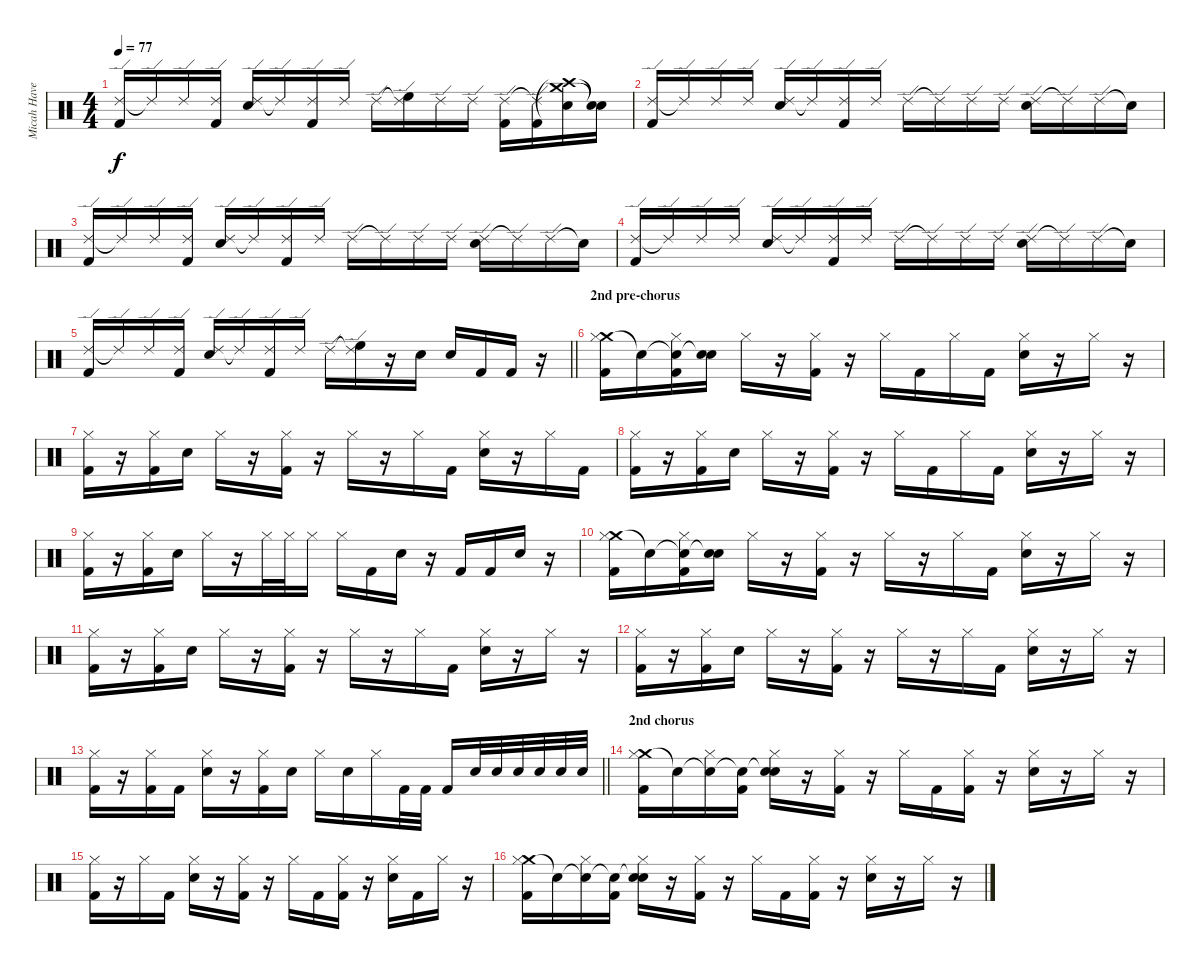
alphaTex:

\track ("Micah Havertape" "Micah Have") {instrument percussion}
\staff {score}
\articulation defaults
\ts (4 4)
\tempo 77
\clef neutral
\ks c
("Ride (edge) 2" "Kick (hit) 2").16{dy f} "Ride (edge) 2"{t}.16 "Ride (edge) 2".16 ("Ride (edge) 2" "Kick (hit) 2").16 ("Ride (edge) 2" "Electric Snare (hit)").16 "Ride (edge) 2"{t}.16 ("Ride (edge) 2" "Kick (hit) 2").16 "Ride (edge) 2".16 "Ride (edge) 2".16 ("Ride (edge) 2"{t} "High Floor Tom (hit)").16 "Ride (edge) 2".16 "Ride (edge) 2".16 ("Ride (edge) 2" "Kick (hit) 2").16 ("Ride (edge) 2"{t} "Kick (hit) 2").16 ("Crash medium (hit)" "Crash high (hit)"{t} "Electric Snare (hit)").16 ("Snare (hit)"{t} "Snare (hit)"{t}).16 |
("Ride (edge) 2" "Kick (hit) 2").16 "Ride (edge) 2"{t}.16 "Ride (edge) 2".16 "Ride (edge) 2".16 ("Ride (edge) 2" "Electric Snare (hit)").16 "Ride (edge) 2"{t}.16 ("Ride (edge) 2" "Kick (hit) 2").16 "Ride (edge) 2".16 "Ride (edge) 2".16 "Ride (edge) 2"{t}.16 "Ride (edge) 2".16 "Ride (edge) 2".16 ("Ride (edge) 2" "Electric Snare (hit)").16 "Ride (edge) 2"{t}.16 "Ride (edge) 2".16 "Snare (hit)"{t}.16 |
("Ride (edge) 2" "Kick (hit) 2").16 "Ride (edge) 2"{t}.16 "Ride (edge) 2".16 ("Ride (edge) 2" "Kick (hit) 2").16 ("Ride (edge) 2" "Electric Snare (hit)").16 "Ride (edge) 2"{t}.16 ("Ride (edge) 2" "Kick (hit) 2").16 "Ride (edge) 2".16 "Ride (edge) 2".16 "Ride (edge) 2"{t}.16 "Ride (edge) 2".16 "Ride (edge) 2".16 ("Ride (edge) 2" "Electric Snare (hit)").16 "Ride (edge) 2"{t}.16 "Ride (edge) 2".16 "Snare (hit)"{t}.16 |
("Ride (edge) 2" "Kick (hit) 2").16 "Ride (edge) 2"{t}.16 "Ride (edge) 2".16 "Ride (edge) 2".16 ("Ride (edge) 2" "Electric Snare (hit)").16 "Ride (edge) 2"{t}.16 ("Ride (edge) 2" "Kick (hit) 2").16 "Ride (edge) 2".16 "Ride (edge) 2".16 "Ride (edge) 2"{t}.16 "Ride (edge) 2".16 "Ride (edge) 2".16 ("Ride (edge) 2" "Electric Snare (hit)").16 "Ride (edge) 2"{t}.16 "Ride (edge) 2".16 "Snare (hit)"{t}.16 |
\barLineRight lightlight
("Ride (edge) 2" "Kick (hit) 2").16 "Ride (edge) 2"{t}.16 "Ride (edge) 2".16 ("Ride (edge) 2" "Kick (hit) 2").16 ("Ride (edge) 2" "Electric Snare (hit)").16 "Ride (edge) 2"{t}.16 ("Ride (edge) 2" "Kick (hit) 2").16 "Ride (edge) 2".16 "Ride (edge) 2".16 ("Ride (edge) 2"{t} "High Floor Tom (hit)").16 r.16 "Electric Snare (hit)".16 "Electric Snare (hit)".16 "Kick (hit) 2".16 "Kick (hit) 2".16 r.16 |
\section ("" "2nd pre-chorus")
("Crash medium (hit)" "Hi-Hat (closed)" "Kick (hit) 2").16 "Snare (hit)"{t}.16 ("Snare (hit)"{t} "Hi-Hat (closed)" "Kick (hit) 2").16 ("Snare (hit)"{t} "Electric Snare (hit)").16 "Hi-Hat (closed)".16 r.16 ("Hi-Hat (closed)" "Kick (hit) 2").16 r.16 "Hi-Hat (closed)".16 "Kick (hit) 2".16 "Hi-Hat (closed)".16 "Kick (hit) 2".16 ("Hi-Hat (closed)" "Electric Snare (hit)").16 r.16 "Hi-Hat (closed)".16 r.16 |
("Hi-Hat (closed)" "Kick (hit) 2").16 r.16 ("Hi-Hat (closed)" "Kick (hit) 2").16 "Electric Snare (hit)".16 "Hi-Hat (closed)".16 r.16 ("Hi-Hat (closed)" "Kick (hit) 2").16 r.16 "Hi-Hat (closed)".16 r.16 "Hi-Hat (closed)".16 "Kick (hit) 2".16 ("Hi-Hat (closed)" "Electric Snare (hit)").16 r.16 "Hi-Hat (closed)".16 "Kick (hit) 2".16 |
("Hi-Hat (closed)" "Kick (hit) 2").16 r.16 ("Hi-Hat (closed)" "Kick (hit) 2").16 "Electric Snare (hit)".16 "Hi-Hat (closed)".16 r.16 ("Hi-Hat (closed)" "Kick (hit) 2").16 r.16 "Hi-Hat (closed)".16 "Kick (hit) 2".16 "Hi-Hat (closed)".16 "Kick (hit) 2".16 ("Hi-Hat (closed)" "Electric Snare (hit)").16 r.16 "Hi-Hat (closed)".16 r.16 |
("Hi-Hat (closed)" "Kick (hit) 2").16 r.16 ("Hi-Hat (closed)" "Kick (hit) 2").16 "Electric Snare (hit)".16 "Hi-Hat (closed)".16 r.16 "Hi-Hat (closed)".32 "Hi-Hat (closed)".32 "Hi-Hat (closed)".16 "Hi-Hat (closed)".16 "Kick (hit) 2".16 "Electric Snare (hit)".16 r.16 "Kick (hit) 2".16 "Kick (hit) 2".16 "Electric Snare (hit)".16 r.16 |
("Crash medium (hit)" "Hi-Hat (closed)" "Kick (hit) 2").16 "Snare (hit)"{t}.16 ("Snare (hit)"{t} "Hi-Hat (closed)" "Kick (hit) 2").16 ("Snare (hit)"{t} "Electric Snare (hit)").16 "Hi-Hat (closed)".16 r.16 ("Hi-Hat (closed)" "Kick (hit) 2").16 r.16 "Hi-Hat (closed)".16 r.16 "Hi-Hat (closed)".16 "Kick (hit) 2".16 ("Hi-Hat (closed)" "Electric Snare (hit)").16 r.16 "Hi-Hat (closed)".16 r.16 |
("Hi-Hat (closed)" "Kick (hit) 2").16 r.16 ("Hi-Hat (closed)" "Kick (hit) 2").16 "Electric Snare (hit)".16 "Hi-Hat (closed)".16 r.16 ("Hi-Hat (closed)" "Kick (hit) 2").16 r.16 "Hi-Hat (closed)".16 r.16 "Hi-Hat (closed)".16 "Kick (hit) 2".16 ("Hi-Hat (closed)" "Electric Snare (hit)").16 r.16 "Hi-Hat (closed)".16 r.16 |
("Hi-Hat (closed)" "Kick (hit) 2").16 r.16 ("Hi-Hat (closed)" "Kick (hit) 2").16 "Electric Snare (hit)".16 "Hi-Hat (closed)".16 r.16 ("Hi-Hat (closed)" "Kick (hit) 2").16 r.16 "Hi-Hat (closed)".16 r.16 "Hi-Hat (closed)".16 "Kick (hit) 2".16 ("Hi-Hat (closed)" "Electric Snare (hit)").16 r.16 "Hi-Hat (closed)".16 r.16 |
\barLineRight lightlight
("Hi-Hat (closed)" "Kick (hit) 2").16 r.16 ("Hi-Hat (closed)" "Kick (hit) 2").16 "Kick (hit) 2".16 ("Hi-Hat (closed)" "Electric Snare (hit)").16 r.16 ("Hi-Hat (closed)" "Kick (hit) 2").16 "Electric Snare (hit)".16 "Hi-Hat (closed)".16 "Electric Snare (hit)".16 "Hi-Hat (closed)".16 "Kick (hit) 2".32 "Kick (hit) 2".32 "Kick (hit) 2".16 "Electric Snare (hit)".32 "Electric Snare (hit)".32 "Electric Snare (hit)".32 "Electric Snare (hit)".32 "Electric Snare (hit)".32 "Electric Snare (hit)".32 |
\section ("" "2nd chorus")
("Crash medium (hit)" "Hi-Hat (closed)" "Kick (hit) 2").16 "Snare (hit)"{t}.16 ("Snare (hit)"{t} "Hi-Hat (closed)").16 ("Snare (hit)"{t} "Kick (hit) 2").16 ("Snare (hit)"{t} "Hi-Hat (closed)" "Electric Snare (hit)").16 r.16 ("Hi-Hat (closed)" "Kick (hit) 2").16 r.16 "Hi-Hat (closed)".16 "Kick (hit) 2".16 ("Hi-Hat (closed)" "Kick (hit) 2").16 r.16 ("Hi-Hat (closed)" "Electric Snare (hit)").16 r.16 "Hi-Hat (closed)".16 r.16 |
("Hi-Hat (closed)" "Kick (hit) 2").16 r.16 "Hi-Hat (closed)".16 "Kick (hit) 2".16 ("Hi-Hat (closed)" "Electric Snare (hit)").16 r.16 ("Hi-Hat (closed)" "Kick (hit) 2").16 r.16 "Hi-Hat (closed)".16 "Kick (hit) 2".16 ("Hi-Hat (closed)" "Kick (hit) 2").16 r.16 ("Hi-Hat (closed)" "Electric Snare (hit)").16 "Kick (hit) 2".16 "Hi-Hat (closed)".16 r.16 |
("Crash medium (hit)" "Hi-Hat (closed)" "Kick (hit) 2").16 "Snare (hit)"{t}.16 ("Snare (hit)"{t} "Hi-Hat (closed)").16 ("Snare (hit)"{t} "Kick (hit) 2").16 ("Snare (hit)"{t} "Hi-Hat (closed)" "Electric Snare (hit)").16 r.16 ("Hi-Hat (closed)" "Kick (hit) 2").16 r.16 "Hi-Hat (closed)".16 "Kick (hit) 2".16 ("Hi-Hat (closed)" "Kick (hit) 2").16 r.16 ("Hi-Hat (closed)" "Electric Snare (hit)").16 r.16 "Hi-Hat (closed)".16 r.16
